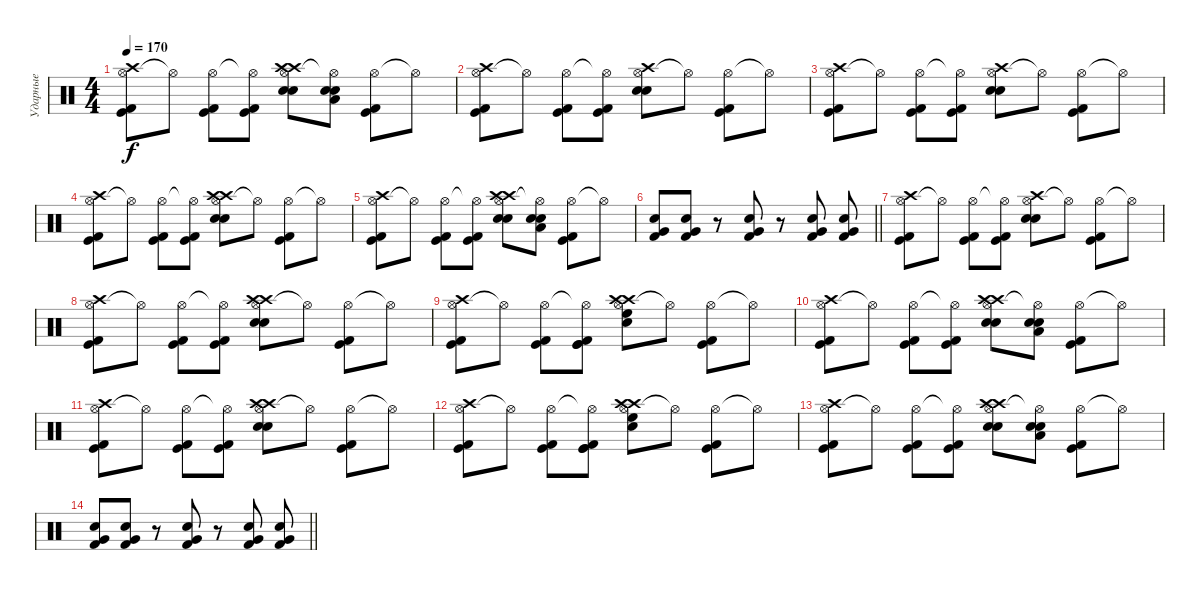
\track ("Ударные" "Ударные") {instrument percussion}
\staff {score}
\articulation defaults
\ts (4 4)
\tempo 170
\clef neutral
\ks c
("Hi-Hat (open)" "Kick (hit)" "Kick (hit) 2" "Crash high (hit)").8{dy f} "Hi-Hat (open)"{t}.8 ("Hi-Hat (open)" "Kick (hit)" "Kick (hit) 2").8 ("Hi-Hat (open)"{t} "Kick (hit)" "Kick (hit) 2").8 ("Hi-Hat (open)" "Electric Snare (hit)" "Electric Snare (hit)" "Crash high (hit)" "Crash high (hit)").8 ("Hi-Hat (open)"{t} "Electric Snare (hit)" "Electric Snare (hit)" "Low Tom (hit)").8 ("Hi-Hat (open)" "Kick (hit)" "Kick (hit) 2").8 "Hi-Hat (open)"{t}.8 |
("Hi-Hat (open)" "Kick (hit)" "Kick (hit) 2" "Crash high (hit)").8 "Hi-Hat (open)"{t}.8 ("Hi-Hat (open)" "Kick (hit)" "Kick (hit) 2").8 ("Hi-Hat (open)"{t} "Kick (hit)" "Kick (hit) 2").8 ("Hi-Hat (open)" "Electric Snare (hit)" "Electric Snare (hit)" "Crash high (hit)").8 "Hi-Hat (open)"{t}.8 ("Hi-Hat (open)" "Kick (hit)" "Kick (hit) 2").8 "Hi-Hat (open)"{t}.8 |
("Hi-Hat (open)" "Kick (hit)" "Kick (hit) 2" "Crash high (hit)").8 "Hi-Hat (open)"{t}.8 ("Hi-Hat (open)" "Kick (hit)" "Kick (hit) 2").8 ("Hi-Hat (open)"{t} "Kick (hit)" "Kick (hit) 2").8 ("Hi-Hat (open)" "Electric Snare (hit)" "Electric Snare (hit)" "Crash high (hit)").8 "Hi-Hat (open)"{t}.8 ("Hi-Hat (open)" "Kick (hit)" "Kick (hit) 2").8 "Hi-Hat (open)"{t}.8 |
("Hi-Hat (open)" "Kick (hit)" "Kick (hit) 2" "Crash high (hit)").8 "Hi-Hat (open)"{t}.8 ("Hi-Hat (open)" "Kick (hit)" "Kick (hit) 2").8 ("Hi-Hat (open)"{t} "Kick (hit)" "Kick (hit) 2").8 ("Hi-Hat (open)" "Electric Snare (hit)" "Electric Snare (hit)" "Crash high (hit)" "Crash high (hit)").8 "Hi-Hat (open)"{t}.8 ("Hi-Hat (open)" "Kick (hit)" "Kick (hit) 2").8 "Hi-Hat (open)"{t}.8 |
("Hi-Hat (open)" "Kick (hit)" "Kick (hit) 2" "Crash high (hit)").8 "Hi-Hat (open)"{t}.8 ("Hi-Hat (open)" "Kick (hit)" "Kick (hit) 2").8 ("Hi-Hat (open)"{t} "Kick (hit)" "Kick (hit) 2").8 ("Hi-Hat (open)" "Electric Snare (hit)" "Electric Snare (hit)" "Crash high (hit)" "Crash high (hit)").8 ("Hi-Hat (open)"{t} "Electric Snare (hit)" "Electric Snare (hit)" "Low Tom (hit)").8 ("Hi-Hat (open)" "Kick (hit)" "Kick (hit) 2").8 "Hi-Hat (open)"{t}.8 |
\barLineRight lightlight
("Kick (hit) 2" "Electric Snare (hit)" "Very Low Tom (hit)").8 ("Kick (hit) 2" "Electric Snare (hit)" "Very Low Tom (hit)").8 r.8 ("Kick (hit) 2" "Electric Snare (hit)" "Very Low Tom (hit)").8 r.8 ("Kick (hit) 2" "Electric Snare (hit)" "Very Low Tom (hit)").8 ("Kick (hit) 2" "Electric Snare (hit)" "Very Low Tom (hit)").8 |
("Hi-Hat (open)" "Kick (hit)" "Kick (hit) 2" "Crash high (hit)").8 "Hi-Hat (open)"{t}.8 ("Hi-Hat (open)" "Kick (hit)" "Kick (hit) 2").8 ("Hi-Hat (open)"{t} "Kick (hit)" "Kick (hit) 2").8 ("Hi-Hat (open)" "Electric Snare (hit)" "Electric Snare (hit)" "Crash high (hit)").8 "Hi-Hat (open)"{t}.8 ("Hi-Hat (open)" "Kick (hit)" "Kick (hit) 2").8 "Hi-Hat (open)"{t}.8 |
("Hi-Hat (open)" "Kick (hit)" "Kick (hit) 2" "Crash high (hit)").8 "Hi-Hat (open)"{t}.8 ("Hi-Hat (open)" "Kick (hit)" "Kick (hit) 2").8 ("Hi-Hat (open)"{t} "Kick (hit)" "Kick (hit) 2").8 ("Hi-Hat (open)" "Electric Snare (hit)" "Electric Snare (hit)" "Crash high (hit)" "Crash high (hit)").8 "Hi-Hat (open)"{t}.8 ("Hi-Hat (open)" "Kick (hit)" "Kick (hit) 2").8 "Hi-Hat (open)"{t}.8 |
("Hi-Hat (open)" "Kick (hit)" "Kick (hit) 2" "Crash high (hit)").8 "Hi-Hat (open)"{t}.8 ("Hi-Hat (open)" "Kick (hit)" "Kick (hit) 2").8 ("Hi-Hat (open)"{t} "Kick (hit)" "Kick (hit)" "Kick (hit) 2").8 ("Hi-Hat (open)" "Electric Snare (hit)" "High Floor Tom (hit)" "Crash high (hit)" "Crash high (hit)").8 "Hi-Hat (open)"{t}.8 ("Hi-Hat (open)" "Kick (hit)" "Kick (hit) 2").8 "Hi-Hat (open)"{t}.8 |
("Hi-Hat (open)" "Kick (hit)" "Kick (hit) 2" "Crash high (hit)").8 "Hi-Hat (open)"{t}.8 ("Hi-Hat (open)" "Kick (hit)" "Kick (hit) 2").8 ("Hi-Hat (open)"{t} "Kick (hit)" "Kick (hit) 2").8 ("Hi-Hat (open)" "Electric Snare (hit)" "Electric Snare (hit)" "Crash high (hit)" "Crash high (hit)").8 ("Hi-Hat (open)"{t} "Electric Snare (hit)" "Electric Snare (hit)" "Low Tom (hit)").8 ("Hi-Hat (open)" "Kick (hit)" "Kick (hit) 2").8 "Hi-Hat (open)"{t}.8 |
("Hi-Hat (open)" "Kick (hit)" "Kick (hit) 2" "Crash high (hit)").8 "Hi-Hat (open)"{t}.8 ("Hi-Hat (open)" "Kick (hit)" "Kick (hit) 2").8 ("Hi-Hat (open)"{t} "Kick (hit)" "Kick (hit) 2").8 ("Hi-Hat (open)" "Electric Snare (hit)" "Electric Snare (hit)" "Crash high (hit)" "Crash high (hit)").8 "Hi-Hat (open)"{t}.8 ("Hi-Hat (open)" "Kick (hit)" "Kick (hit) 2").8 "Hi-Hat (open)"{t}.8 |
("Hi-Hat (open)" "Kick (hit)" "Kick (hit) 2" "Crash high (hit)").8 "Hi-Hat (open)"{t}.8 ("Hi-Hat (open)" "Kick (hit)" "Kick (hit) 2").8 ("Hi-Hat (open)"{t} "Kick (hit)" "Kick (hit)" "Kick (hit) 2").8 ("Hi-Hat (open)" "Electric Snare (hit)" "High Floor Tom (hit)" "Crash high (hit)" "Crash high (hit)").8 "Hi-Hat (open)"{t}.8 ("Hi-Hat (open)" "Kick (hit)" "Kick (hit) 2").8 "Hi-Hat (open)"{t}.8 |
("Hi-Hat (open)" "Kick (hit)" "Kick (hit) 2" "Crash high (hit)").8 "Hi-Hat (open)"{t}.8 ("Hi-Hat (open)" "Kick (hit)" "Kick (hit) 2").8 ("Hi-Hat (open)"{t} "Kick (hit)" "Kick (hit) 2").8 ("Hi-Hat (open)" "Electric Snare (hit)" "Electric Snare (hit)" "Crash high (hit)" "Crash high (hit)").8 ("Hi-Hat (open)"{t} "Electric Snare (hit)" "Electric Snare (hit)" "Low Tom (hit)").8 ("Hi-Hat (open)" "Kick (hit)" "Kick (hit) 2").8 "Hi-Hat (open)"{t}.8 |
\barLineRight lightlight
("Kick (hit) 2" "Electric Snare (hit)" "Very Low Tom (hit)").8 ("Kick (hit) 2" "Electric Snare (hit)" "Very Low Tom (hit)").8 r.8 ("Kick (hit) 2" "Electric Snare (hit)" "Very Low Tom (hit)").8 r.8 ("Kick (hit) 2" "Electric Snare (hit)" "Very Low Tom (hit)").8 ("Kick (hit) 2" "Electric Snare (hit)" "Very Low Tom (hit)").8
